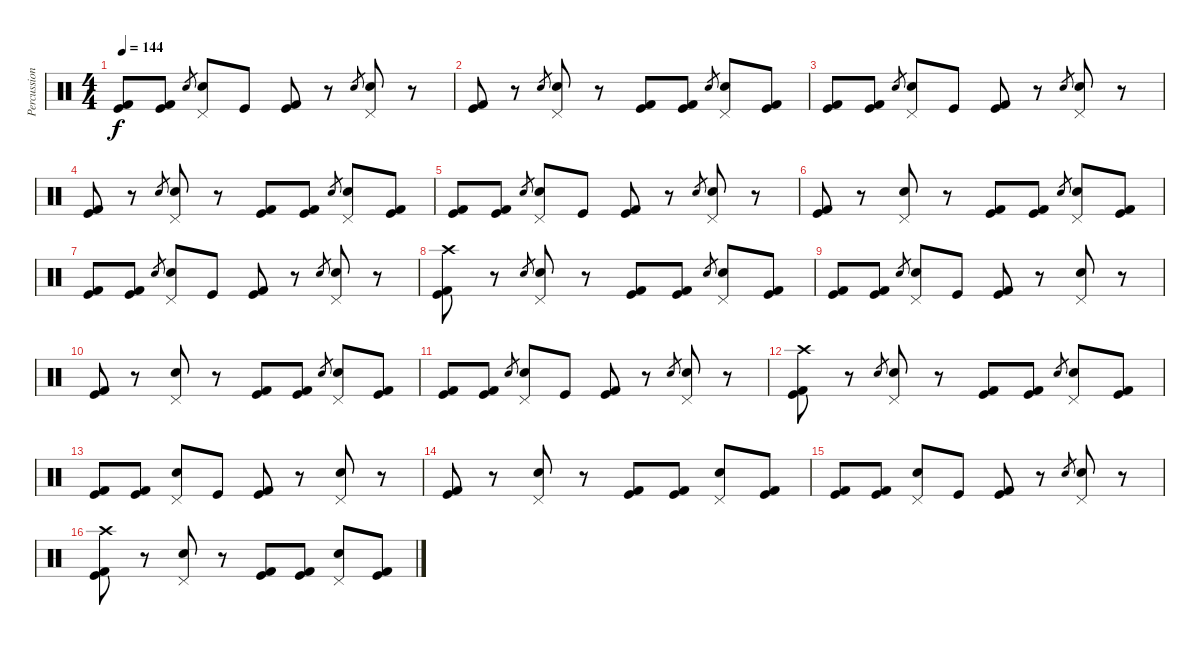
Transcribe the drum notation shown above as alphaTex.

\track ("Percussions" "Percussion") {instrument percussion}
\staff {score}
\articulation defaults
\ts (4 4)
\tempo 144
\clef neutral
\ks c
("Kick (hit)" "Kick (hit) 2").8{dy f} ("Kick (hit)" "Kick (hit) 2").8 "Snare (hit) 2".8{gr} ("Pedal Hi-Hat (hit)" "Snare (hit) 2").8 "Kick (hit)".8 ("Kick (hit)" "Kick (hit) 2").8 r.8 "Snare (hit) 2".8{gr} ("Pedal Hi-Hat (hit)" "Snare (hit) 2").8 r.8 |
("Kick (hit)" "Kick (hit) 2").8 r.8 "Snare (hit) 2".8{gr} ("Pedal Hi-Hat (hit)" "Snare (hit) 2").8 r.8 ("Kick (hit)" "Kick (hit) 2").8 ("Kick (hit)" "Kick (hit) 2").8 "Snare (hit) 2".8{gr} ("Pedal Hi-Hat (hit)" "Snare (hit) 2").8 ("Kick (hit)" "Kick (hit) 2").8 |
("Kick (hit)" "Kick (hit) 2").8 ("Kick (hit)" "Kick (hit) 2").8 "Snare (hit) 2".8{gr} ("Pedal Hi-Hat (hit)" "Snare (hit) 2").8 "Kick (hit)".8 ("Kick (hit)" "Kick (hit) 2").8 r.8 "Snare (hit) 2".8{gr} ("Pedal Hi-Hat (hit)" "Snare (hit) 2").8 r.8 |
("Kick (hit)" "Kick (hit) 2").8 r.8 "Snare (hit) 2".8{gr} ("Pedal Hi-Hat (hit)" "Snare (hit) 2").8 r.8 ("Kick (hit)" "Kick (hit) 2").8 ("Kick (hit)" "Kick (hit) 2").8 "Snare (hit) 2".8{gr} ("Pedal Hi-Hat (hit)" "Snare (hit) 2").8 ("Kick (hit)" "Kick (hit) 2").8 |
("Kick (hit)" "Kick (hit) 2").8 ("Kick (hit)" "Kick (hit) 2").8 "Snare (hit) 2".8{gr} ("Pedal Hi-Hat (hit)" "Snare (hit) 2").8 "Kick (hit)".8 ("Kick (hit)" "Kick (hit) 2").8 r.8 "Snare (hit) 2".8{gr} ("Pedal Hi-Hat (hit)" "Snare (hit) 2").8 r.8 |
("Kick (hit)" "Kick (hit) 2").8 r.8 ("Pedal Hi-Hat (hit)" "Snare (hit) 2").8 r.8 ("Kick (hit)" "Kick (hit) 2").8 ("Kick (hit)" "Kick (hit) 2").8 "Snare (hit) 2".8{gr} ("Pedal Hi-Hat (hit)" "Snare (hit) 2").8 ("Kick (hit)" "Kick (hit) 2").8 |
("Kick (hit)" "Kick (hit) 2").8 ("Kick (hit)" "Kick (hit) 2").8 "Snare (hit) 2".8{gr} ("Pedal Hi-Hat (hit)" "Snare (hit) 2").8 "Kick (hit)".8 ("Kick (hit)" "Kick (hit) 2").8 r.8 "Snare (hit) 2".8{gr} ("Pedal Hi-Hat (hit)" "Snare (hit) 2").8 r.8 |
("Crash high (hit)" "Kick (hit)" "Kick (hit) 2").8 r.8 "Snare (hit) 2".8{gr} ("Pedal Hi-Hat (hit)" "Snare (hit) 2").8 r.8 ("Kick (hit)" "Kick (hit) 2").8 ("Kick (hit)" "Kick (hit) 2").8 "Snare (hit) 2".8{gr} ("Pedal Hi-Hat (hit)" "Snare (hit) 2").8 ("Kick (hit)" "Kick (hit) 2").8 |
("Kick (hit)" "Kick (hit) 2").8 ("Kick (hit)" "Kick (hit) 2").8 "Snare (hit) 2".8{gr} ("Pedal Hi-Hat (hit)" "Snare (hit) 2").8 "Kick (hit)".8 ("Kick (hit)" "Kick (hit) 2").8 r.8 ("Pedal Hi-Hat (hit)" "Snare (hit) 2").8 r.8 |
("Kick (hit)" "Kick (hit) 2").8 r.8 ("Pedal Hi-Hat (hit)" "Snare (hit) 2").8 r.8 ("Kick (hit)" "Kick (hit) 2").8 ("Kick (hit)" "Kick (hit) 2").8 "Snare (hit) 2".8{gr} ("Pedal Hi-Hat (hit)" "Snare (hit) 2").8 ("Kick (hit)" "Kick (hit) 2").8 |
("Kick (hit)" "Kick (hit) 2").8 ("Kick (hit)" "Kick (hit) 2").8 "Snare (hit) 2".8{gr} ("Pedal Hi-Hat (hit)" "Snare (hit) 2").8 "Kick (hit)".8 ("Kick (hit)" "Kick (hit) 2").8 r.8 "Snare (hit) 2".8{gr} ("Pedal Hi-Hat (hit)" "Snare (hit) 2").8 r.8 |
("Crash high (hit)" "Kick (hit)" "Kick (hit) 2").8 r.8 "Snare (hit) 2".8{gr} ("Pedal Hi-Hat (hit)" "Snare (hit) 2").8 r.8 ("Kick (hit)" "Kick (hit) 2").8 ("Kick (hit)" "Kick (hit) 2").8 "Snare (hit) 2".8{gr} ("Pedal Hi-Hat (hit)" "Snare (hit) 2").8 ("Kick (hit)" "Kick (hit) 2").8 |
("Kick (hit)" "Kick (hit) 2").8 ("Kick (hit)" "Kick (hit) 2").8 ("Pedal Hi-Hat (hit)" "Snare (hit) 2").8 "Kick (hit)".8 ("Kick (hit)" "Kick (hit) 2").8 r.8 ("Pedal Hi-Hat (hit)" "Snare (hit) 2").8 r.8 |
("Kick (hit)" "Kick (hit) 2").8 r.8 ("Pedal Hi-Hat (hit)" "Snare (hit) 2").8 r.8 ("Kick (hit)" "Kick (hit) 2").8 ("Kick (hit)" "Kick (hit) 2").8 ("Pedal Hi-Hat (hit)" "Snare (hit) 2").8 ("Kick (hit)" "Kick (hit) 2").8 |
("Kick (hit)" "Kick (hit) 2").8 ("Kick (hit)" "Kick (hit) 2").8 ("Pedal Hi-Hat (hit)" "Snare (hit) 2").8 "Kick (hit)".8 ("Kick (hit)" "Kick (hit) 2").8 r.8 "Snare (hit) 2".8{gr} ("Pedal Hi-Hat (hit)" "Snare (hit) 2").8 r.8 |
("Crash high (hit)" "Kick (hit)" "Kick (hit) 2").8 r.8 ("Pedal Hi-Hat (hit)" "Snare (hit) 2").8 r.8 ("Kick (hit)" "Kick (hit) 2").8 ("Kick (hit)" "Kick (hit) 2").8 ("Pedal Hi-Hat (hit)" "Snare (hit) 2").8 ("Kick (hit)" "Kick (hit) 2").8
